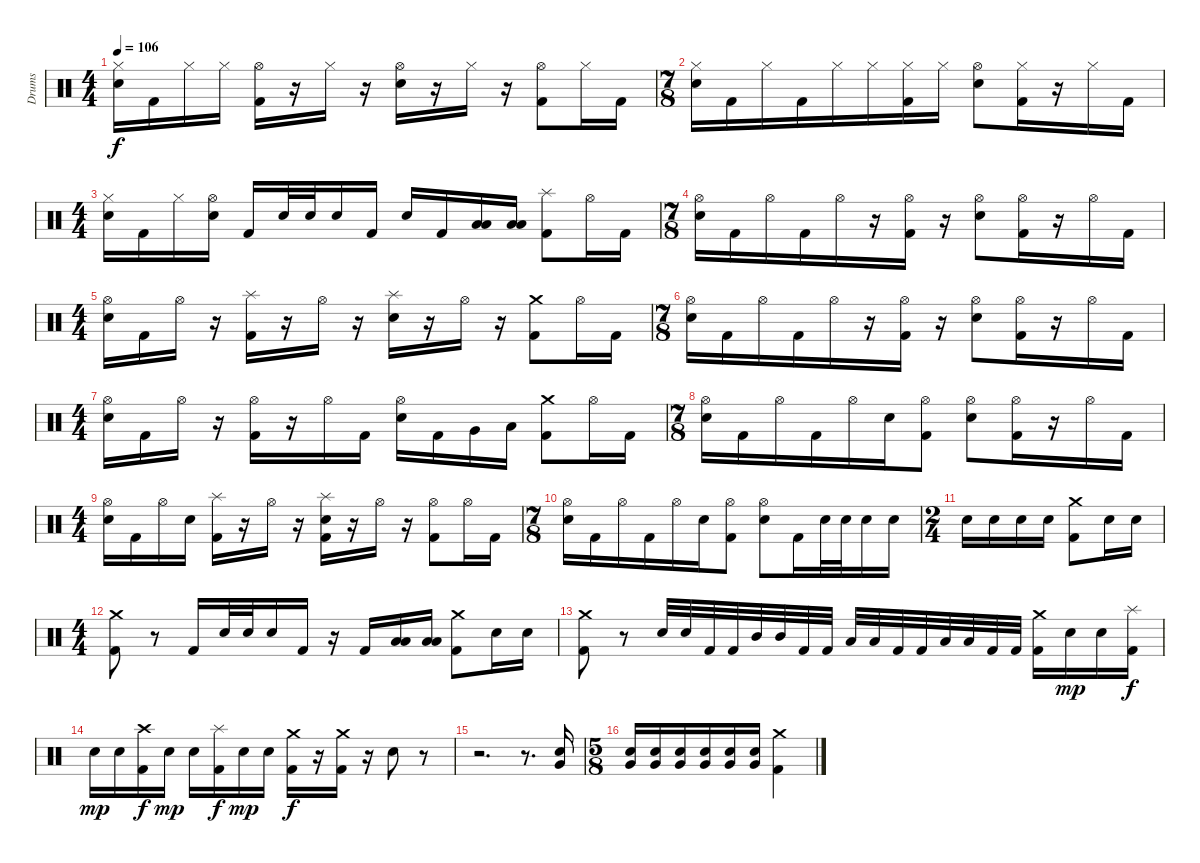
\track ("Drums" "Drums") {instrument percussion}
\staff {score}
\articulation defaults
\ts (4 4)
\tempo 106
\clef neutral
\ks c
("Hi-Hat (closed)" "Electric Snare (hit)").16{dy f} "Kick (hit) 2".16 "Hi-Hat (closed)".16 "Hi-Hat (closed)".16 ("Hi-Hat (open)" "Kick (hit) 2").16 r.16 "Hi-Hat (closed)".16 r.16 ("Hi-Hat (open)" "Electric Snare (hit)").16 r.16 "Hi-Hat (closed)".16 r.16 ("Hi-Hat (open)" "Kick (hit) 2").8 "Hi-Hat (closed)".16 "Kick (hit) 2".16 |
\ts (7 8)
("Hi-Hat (closed)" "Electric Snare (hit)").16 "Kick (hit) 2".16 "Hi-Hat (closed)".16 "Kick (hit) 2".16 "Hi-Hat (closed)".16 "Hi-Hat (closed)".16 ("Hi-Hat (closed)" "Kick (hit) 2").16 "Hi-Hat (closed)".16 ("Hi-Hat (open)" "Electric Snare (hit)").8 ("Hi-Hat (closed)" "Kick (hit) 2").16 r.16 "Hi-Hat (closed)".16 "Kick (hit) 2".16 |
\ts (4 4)
("Hi-Hat (closed)" "Electric Snare (hit)").16 "Kick (hit) 2".16 "Hi-Hat (closed)".16 ("Hi-Hat (open)" "Electric Snare (hit)").16 "Kick (hit) 2".16 "Electric Snare (hit)".32 "Electric Snare (hit)".32 "Electric Snare (hit)".16 "Kick (hit) 2".16 "Electric Snare (hit)".16 "Kick (hit) 2".16 ("Low Tom (hit)" "Low Floor Tom (hit)").16 ("Low Tom (hit)" "Low Floor Tom (hit)").16 ("Splash (hit)" "Kick (hit) 2").8 "Hi-Hat (open)".16 "Kick (hit) 2".16 |
\ts (7 8)
("Hi-Hat (open)" "Electric Snare (hit)").16 "Kick (hit) 2".16 "Hi-Hat (open)".16 "Kick (hit) 2".16 "Hi-Hat (open)".16 r.16 ("Hi-Hat (open)" "Kick (hit) 2").16 r.16 ("Hi-Hat (open)" "Electric Snare (hit)").8 ("Hi-Hat (open)" "Kick (hit) 2").16 r.16 "Hi-Hat (open)".16 "Kick (hit) 2".16 |
\ts (4 4)
("Hi-Hat (open)" "Electric Snare (hit)").16 "Kick (hit) 2".16 "Hi-Hat (open)".16 r.16 ("Splash (hit)" "Kick (hit) 2").16 r.16 "Hi-Hat (open)".16 r.16 ("Splash (hit)" "Electric Snare (hit)").16 r.16 "Hi-Hat (open)".16 r.16 ("Crash medium (hit)" "Kick (hit) 2").8 "Hi-Hat (open)".16 "Kick (hit) 2".16 |
\ts (7 8)
("Hi-Hat (open)" "Electric Snare (hit)").16 "Kick (hit) 2".16 "Hi-Hat (open)".16 "Kick (hit) 2".16 "Hi-Hat (open)".16 r.16 ("Hi-Hat (open)" "Kick (hit) 2").16 r.16 ("Hi-Hat (open)" "Electric Snare (hit)").8 ("Hi-Hat (open)" "Kick (hit) 2").16 r.16 "Hi-Hat (open)".16 "Kick (hit) 2".16 |
\ts (4 4)
("Hi-Hat (open)" "Electric Snare (hit)").16 "Kick (hit) 2".16 "Hi-Hat (open)".16 r.16 ("Hi-Hat (open)" "Kick (hit) 2").16 r.16 "Hi-Hat (open)".16 "Kick (hit) 2".16 ("Hi-Hat (open)" "Electric Snare (hit)").16 "Kick (hit) 2".16 "Very Low Tom (hit)".16 "Low Floor Tom (hit)".16 ("Crash medium (hit)" "Kick (hit) 2").8 "Hi-Hat (open)".16 "Kick (hit) 2".16 |
\ts (7 8)
("Hi-Hat (open)" "Electric Snare (hit)").16 "Kick (hit) 2".16 "Hi-Hat (open)".16 "Kick (hit) 2".16 "Hi-Hat (open)".16 "Electric Snare (hit)".16 ("Hi-Hat (open)" "Kick (hit) 2").8 ("Hi-Hat (open)" "Electric Snare (hit)").8 ("Hi-Hat (open)" "Kick (hit) 2").16 r.16 "Hi-Hat (open)".16 "Kick (hit) 2".16 |
\ts (4 4)
("Hi-Hat (open)" "Electric Snare (hit)").16 "Kick (hit) 2".16 "Hi-Hat (open)".16 "Electric Snare (hit)".16 ("Splash (hit)" "Kick (hit) 2").16 r.16 "Hi-Hat (open)".16 r.16 ("Kick (hit) 2" "Splash (hit)" "Electric Snare (hit)").16 r.16 "Hi-Hat (open)".16 r.16 ("Hi-Hat (open)" "Kick (hit) 2").8 "Hi-Hat (open)".16 "Kick (hit) 2".16 |
\ts (7 8)
("Hi-Hat (open)" "Electric Snare (hit)").16 "Kick (hit) 2".16 "Hi-Hat (open)".16 "Kick (hit) 2".16 "Hi-Hat (open)".16 "Electric Snare (hit)".16 ("Hi-Hat (open)" "Kick (hit) 2").8 ("Hi-Hat (open)" "Electric Snare (hit)").8 "Kick (hit) 2".16 "Electric Snare (hit)".32 "Electric Snare (hit)".32 "Electric Snare (hit)".16 "Electric Snare (hit)".16 |
\ts (2 4)
"Electric Snare (hit)".16 "Electric Snare (hit)".16 "Electric Snare (hit)".16 "Electric Snare (hit)".16 ("Crash medium (hit)" "Kick (hit) 2").8 "Electric Snare (hit)".16 "Electric Snare (hit)".16 |
\ts (4 4)
("Crash medium (hit)" "Kick (hit) 2").8 r.8 "Kick (hit) 2".16 "Electric Snare (hit)".32 "Electric Snare (hit)".32 "Electric Snare (hit)".16 "Kick (hit) 2".16 r.16 "Kick (hit) 2".16 ("Low Tom (hit)" "Low Floor Tom (hit)").16 ("Low Tom (hit)" "Low Floor Tom (hit)").16 ("Crash medium (hit)" "Kick (hit) 2").8 "Electric Snare (hit)".16 "Electric Snare (hit)".16 |
("Crash medium (hit)" "Kick (hit) 2").8 r.8 "Electric Snare (hit)".32 "Electric Snare (hit)".32 "Kick (hit) 2".32 "Kick (hit) 2".32 "Mid Tom (hit)".32 "Mid Tom (hit)".32 "Kick (hit) 2".32 "Kick (hit) 2".32 "Low Tom (hit)".32 "Low Tom (hit)".32 "Kick (hit) 2".32 "Kick (hit) 2".32 "Low Tom (hit)".32 "Low Tom (hit)".32 "Kick (hit) 2".32 "Kick (hit) 2".32 ("Crash medium (hit)" "Kick (hit) 2").16 "Electric Snare (hit)".16{dy mp} "Electric Snare (hit)".16 ("Splash (hit)" "Kick (hit) 2").16{dy f} |
"Electric Snare (hit)".16{dy mp} "Electric Snare (hit)".16 ("Crash high (hit)" "Kick (hit) 2").16{dy f} "Electric Snare (hit)".16{dy mp} "Electric Snare (hit)".16 ("Splash (hit)" "Kick (hit) 2").16{dy f} "Electric Snare (hit)".16{dy mp} "Electric Snare (hit)".16 ("Crash medium (hit)" "Kick (hit) 2").16{dy f} r.16 ("Kick (hit) 2" "Crash medium (hit)").16 r.16 "Electric Snare (hit)".8 r.8 |
r.2{d} r.8{d} ("Electric Snare (hit)" "Very Low Tom (hit)").16{volume 1} |
\ts (5 8)
("Electric Snare (hit)" "Very Low Tom (hit)").16{volume 3} ("Very Low Tom (hit)" "Electric Snare (hit)").16{volume 6} ("Very Low Tom (hit)" "Electric Snare (hit)").16{volume 8} ("Very Low Tom (hit)" "Electric Snare (hit)").16{volume 10} ("Very Low Tom (hit)" "Electric Snare (hit)").16{volume 12} ("Very Low Tom (hit)" "Electric Snare (hit)").16{volume 14} ("Crash medium (hit)" "Kick (hit) 2").4{volume 16}
